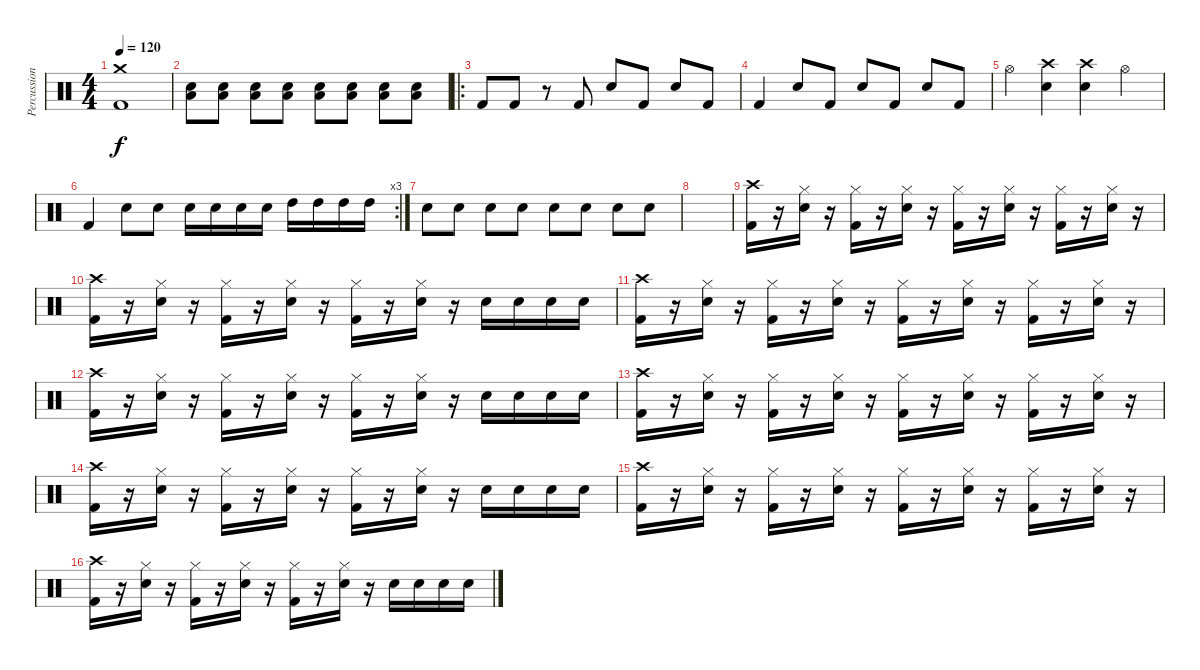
\track ("Percussions" "Percussion") {instrument percussion}
\staff {score}
\articulation defaults
\ts (4 4)
\tempo 120
\clef neutral
\ks c
("Crash medium (hit)" "Kick (hit) 2").1{dy f} |
("Electric Snare (hit)" "Low Tom (hit)").8 ("Electric Snare (hit)" "Low Tom (hit)").8 ("Electric Snare (hit)" "Low Tom (hit)").8 ("Electric Snare (hit)" "Low Tom (hit)").8 ("Electric Snare (hit)" "Low Tom (hit)").8 ("Electric Snare (hit)" "Low Tom (hit)").8 ("Electric Snare (hit)" "Low Tom (hit)").8 ("Electric Snare (hit)" "Low Tom (hit)").8 |
\ro "Kick (hit) 2".8 "Kick (hit) 2".8
r.8 "Kick (hit) 2".8 "Electric Snare (hit)".8 "Kick (hit) 2".8 "Electric Snare (hit)".8 "Kick (hit) 2".8 |
"Kick (hit) 2".4 "Electric Snare (hit)".8 "Kick (hit) 2".8 "Electric Snare (hit)".8 "Kick (hit) 2".8 "Electric Snare (hit)".8 "Kick (hit) 2".8 |
"Hi-Hat (open)".4 ("Crash high (hit)" "Electric Snare (hit)").4 ("Crash high (hit)" "Electric Snare (hit)").4 "Hi-Hat (open)".4 |
\rc 3 "Kick (hit) 2".4 "Electric Snare (hit)".8 "Electric Snare (hit)".8 "Electric Snare (hit)".16 "Electric Snare (hit)".16 "Electric Snare (hit)".16 "Electric Snare (hit)".16 "High Tom (hit)".16 "High Tom (hit)".16 "High Tom (hit)".16 "High Tom (hit)".16
|
"Electric Snare (hit)".8 "Electric Snare (hit)".8 "Electric Snare (hit)".8 "Electric Snare (hit)".8 "Electric Snare (hit)".8 "Electric Snare (hit)".8 "Electric Snare (hit)".8 "Electric Snare (hit)".8 |
|
("Crash high (hit)" "Kick (hit) 2").16 r.16 ("Hi-Hat (closed)" "Electric Snare (hit)").16 r.16 ("Hi-Hat (closed)" "Kick (hit) 2").16 r.16 ("Hi-Hat (closed)" "Electric Snare (hit)").16 r.16 ("Hi-Hat (closed)" "Kick (hit) 2").16 r.16 ("Hi-Hat (closed)" "Electric Snare (hit)").16 r.16 ("Hi-Hat (closed)" "Kick (hit) 2").16 r.16 ("Hi-Hat (closed)" "Electric Snare (hit)").16 r.16 |
("Crash high (hit)" "Kick (hit) 2").16 r.16 ("Hi-Hat (closed)" "Electric Snare (hit)").16 r.16 ("Hi-Hat (closed)" "Kick (hit) 2").16 r.16 ("Hi-Hat (closed)" "Electric Snare (hit)").16 r.16 ("Hi-Hat (closed)" "Kick (hit) 2").16 r.16 ("Hi-Hat (closed)" "Electric Snare (hit)").16 r.16 "Electric Snare (hit)".16 "Electric Snare (hit)".16 "Electric Snare (hit)".16 "Electric Snare (hit)".16 |
("Crash high (hit)" "Kick (hit) 2").16 r.16 ("Hi-Hat (closed)" "Electric Snare (hit)").16 r.16 ("Hi-Hat (closed)" "Kick (hit) 2").16 r.16 ("Hi-Hat (closed)" "Electric Snare (hit)").16 r.16 ("Hi-Hat (closed)" "Kick (hit) 2").16 r.16 ("Hi-Hat (closed)" "Electric Snare (hit)").16 r.16 ("Hi-Hat (closed)" "Kick (hit) 2").16 r.16 ("Hi-Hat (closed)" "Electric Snare (hit)").16 r.16 |
("Crash high (hit)" "Kick (hit) 2").16 r.16 ("Hi-Hat (closed)" "Electric Snare (hit)").16 r.16 ("Hi-Hat (closed)" "Kick (hit) 2").16 r.16 ("Hi-Hat (closed)" "Electric Snare (hit)").16 r.16 ("Hi-Hat (closed)" "Kick (hit) 2").16 r.16 ("Hi-Hat (closed)" "Electric Snare (hit)").16 r.16 "Electric Snare (hit)".16 "Electric Snare (hit)".16 "Electric Snare (hit)".16 "Electric Snare (hit)".16 |
("Crash high (hit)" "Kick (hit) 2").16 r.16 ("Hi-Hat (closed)" "Electric Snare (hit)").16 r.16 ("Hi-Hat (closed)" "Kick (hit) 2").16 r.16 ("Hi-Hat (closed)" "Electric Snare (hit)").16 r.16 ("Hi-Hat (closed)" "Kick (hit) 2").16 r.16 ("Hi-Hat (closed)" "Electric Snare (hit)").16 r.16 ("Hi-Hat (closed)" "Kick (hit) 2").16 r.16 ("Hi-Hat (closed)" "Electric Snare (hit)").16 r.16 |
("Crash high (hit)" "Kick (hit) 2").16 r.16 ("Hi-Hat (closed)" "Electric Snare (hit)").16 r.16 ("Hi-Hat (closed)" "Kick (hit) 2").16 r.16 ("Hi-Hat (closed)" "Electric Snare (hit)").16 r.16 ("Hi-Hat (closed)" "Kick (hit) 2").16 r.16 ("Hi-Hat (closed)" "Electric Snare (hit)").16 r.16 "Electric Snare (hit)".16 "Electric Snare (hit)".16 "Electric Snare (hit)".16 "Electric Snare (hit)".16 |
("Crash high (hit)" "Kick (hit) 2").16 r.16 ("Hi-Hat (closed)" "Electric Snare (hit)").16 r.16 ("Hi-Hat (closed)" "Kick (hit) 2").16 r.16 ("Hi-Hat (closed)" "Electric Snare (hit)").16 r.16 ("Hi-Hat (closed)" "Kick (hit) 2").16 r.16 ("Hi-Hat (closed)" "Electric Snare (hit)").16 r.16 ("Hi-Hat (closed)" "Kick (hit) 2").16 r.16 ("Hi-Hat (closed)" "Electric Snare (hit)").16 r.16 |
("Crash high (hit)" "Kick (hit) 2").16 r.16 ("Hi-Hat (closed)" "Electric Snare (hit)").16 r.16 ("Hi-Hat (closed)" "Kick (hit) 2").16 r.16 ("Hi-Hat (closed)" "Electric Snare (hit)").16 r.16 ("Hi-Hat (closed)" "Kick (hit) 2").16 r.16 ("Hi-Hat (closed)" "Electric Snare (hit)").16 r.16 "Electric Snare (hit)".16 "Electric Snare (hit)".16 "Electric Snare (hit)".16 "Electric Snare (hit)".16
